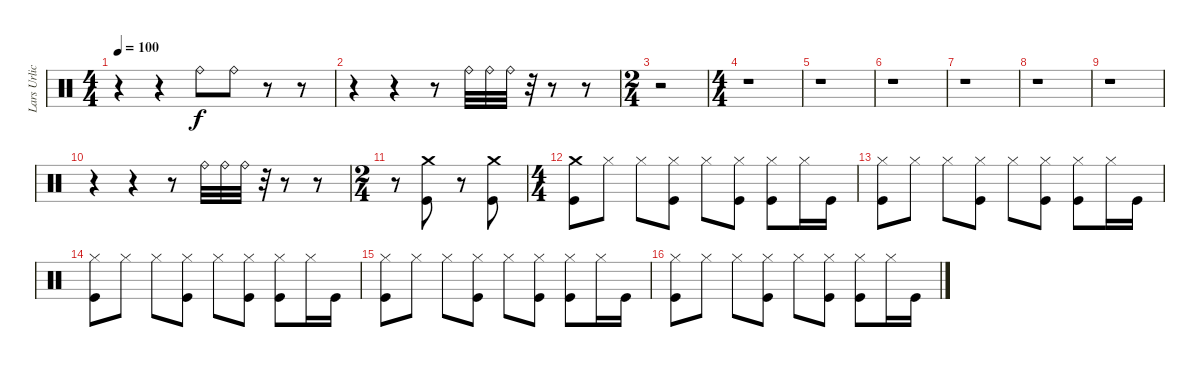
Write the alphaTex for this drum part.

\track ("Lars Urlich" "Lars Urlic") {instrument percussion}
\staff {score}
\articulation defaults
\ts (4 4)
\tempo 100
\clef neutral
\ks c
r.4{dy f} r.4 "Ride (bell)".8 "Ride (bell)".8 r.8 r.8 |
r.4 r.4 r.8 "Ride (bell)".32 "Ride (bell)".32 "Ride (bell)".32 r.32 r.8 r.8 |
\ts (2 4)
r.2 |
\ts (4 4)
r.1 |
r.1 |
r.1 |
r.1 |
r.1 |
r.1 |
r.4 r.4 r.8 "Ride (bell)".32 "Ride (bell)".32 "Ride (bell)".32 r.32 r.8 r.8 |
\ts (2 4)
r.8 ("Kick (hit)" "Crash medium (hit)").8 r.8 ("Kick (hit)" "Crash medium (hit)").8 |
\ts (4 4)
("Crash medium (hit)" "Kick (hit)").8 "Hi-Hat (closed)".8 "Hi-Hat (closed)".8 ("Kick (hit)" "Hi-Hat (closed)").8 "Hi-Hat (closed)".8 ("Kick (hit)" "Hi-Hat (closed)").8 ("Kick (hit)" "Hi-Hat (closed)").8 "Hi-Hat (closed)".16 "Kick (hit)".16 |
("Kick (hit)" "Hi-Hat (closed)").8 "Hi-Hat (closed)".8 "Hi-Hat (closed)".8 ("Kick (hit)" "Hi-Hat (closed)").8 "Hi-Hat (closed)".8 ("Kick (hit)" "Hi-Hat (closed)").8 ("Kick (hit)" "Hi-Hat (closed)").8 "Hi-Hat (closed)".16 "Kick (hit)".16 |
("Kick (hit)" "Hi-Hat (closed)").8 "Hi-Hat (closed)".8 "Hi-Hat (closed)".8 ("Kick (hit)" "Hi-Hat (closed)").8 "Hi-Hat (closed)".8 ("Kick (hit)" "Hi-Hat (closed)").8 ("Kick (hit)" "Hi-Hat (closed)").8 "Hi-Hat (closed)".16 "Kick (hit)".16 |
("Kick (hit)" "Hi-Hat (closed)").8 "Hi-Hat (closed)".8 "Hi-Hat (closed)".8 ("Kick (hit)" "Hi-Hat (closed)").8 "Hi-Hat (closed)".8 ("Kick (hit)" "Hi-Hat (closed)").8 ("Kick (hit)" "Hi-Hat (closed)").8 "Hi-Hat (closed)".16 "Kick (hit)".16 |
("Kick (hit)" "Hi-Hat (closed)").8 "Hi-Hat (closed)".8 "Hi-Hat (closed)".8 ("Kick (hit)" "Hi-Hat (closed)").8 "Hi-Hat (closed)".8 ("Kick (hit)" "Hi-Hat (closed)").8 ("Kick (hit)" "Hi-Hat (closed)").8 "Hi-Hat (closed)".16 "Kick (hit)".16
